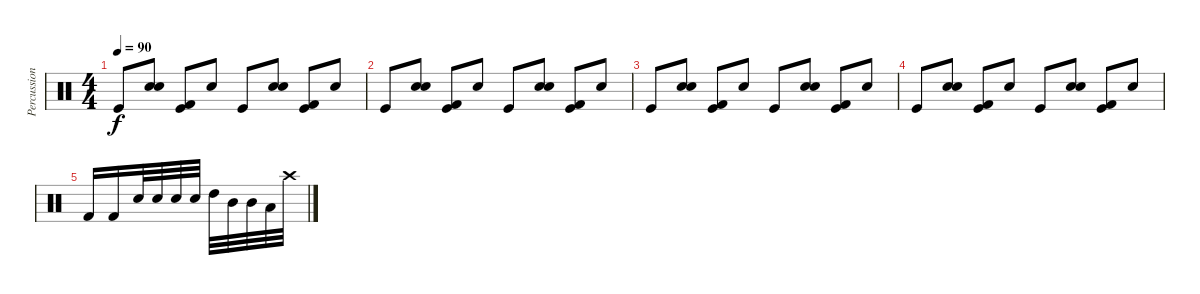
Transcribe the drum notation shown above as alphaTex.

\track ("Percussion" "Percussion") {instrument percussion}
\staff {score}
\articulation defaults
\ts (4 4)
\tempo 90
\clef neutral
\ks c "Kick (hit)".8{dy f}
("Snare (hit) 2" "Metronome (bell)").8 ("Kick (hit) 2" "Kick (hit)").8 "Snare (hit) 2".8 "Kick (hit)".8 ("Snare (hit) 2" "Metronome (bell)").8 ("Kick (hit) 2" "Kick (hit)").8 "Snare (hit) 2".8 |
"Kick (hit)".8 ("Snare (hit) 2" "Metronome (bell)").8 ("Kick (hit) 2" "Kick (hit)").8 "Snare (hit) 2".8 "Kick (hit)".8 ("Snare (hit) 2" "Metronome (bell)").8 ("Kick (hit) 2" "Kick (hit)").8 "Snare (hit) 2".8 |
"Kick (hit)".8 ("Snare (hit) 2" "Metronome (bell)").8 ("Kick (hit) 2" "Kick (hit)").8 "Snare (hit) 2".8 "Kick (hit)".8 ("Snare (hit) 2" "Metronome (bell)").8 ("Kick (hit) 2" "Kick (hit)").8 "Snare (hit) 2".8 |
"Kick (hit)".8 ("Snare (hit) 2" "Metronome (bell)").8 ("Kick (hit) 2" "Kick (hit)").8 "Snare (hit) 2".8 "Kick (hit)".8 ("Snare (hit) 2" "Metronome (bell)").8 ("Kick (hit) 2" "Kick (hit)").8 "Snare (hit) 2".8 |
"Kick (hit) 2".16 "Kick (hit) 2".16 "Snare (hit) 2".32 "Snare (hit) 2".32 "Snare (hit) 2".32 "Snare (hit) 2".32 "High Tom (hit)".32 "Mid Tom (hit)".32 "Mid Tom (hit)".32 "Low Tom (hit)".32 "Crash high (hit)".32
